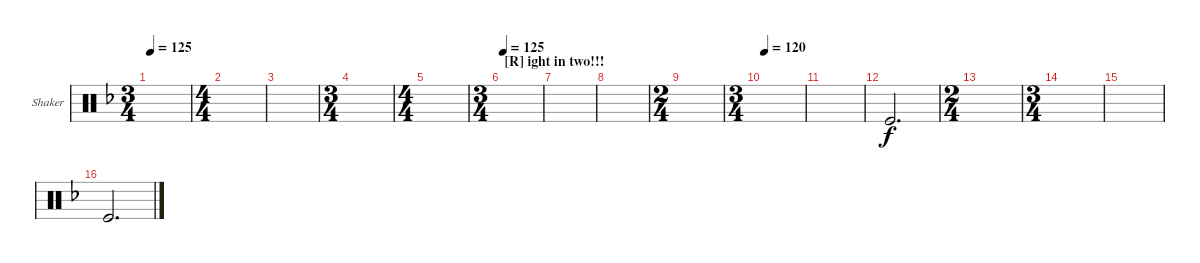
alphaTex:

\defaultSystemsLayout 4
\bracketExtendMode groupsimilarinstruments
\firstSystemTrackNameOrientation horizontal
\otherSystemsTrackNameOrientation horizontal
\track ("Shaker" "Shaker") {instrument percussion}
\staff {score}
\articulation defaults
\ts (3 4)
\tempo 125
\clef neutral
\ks f
|
\ts (4 4)
|
|
\ts (3 4)
|
\ts (4 4)
|
\ts (3 4)
\section ("R" "ight in two!!!")
\tempo 125
|
|
|
\ts (2 4)
|
\ts (3 4)
\tempo 120
|
|
"Kick (hit)".2{d} |
\ts (2 4)
|
\ts (3 4)
|
|
"Kick (hit)".2{d}
